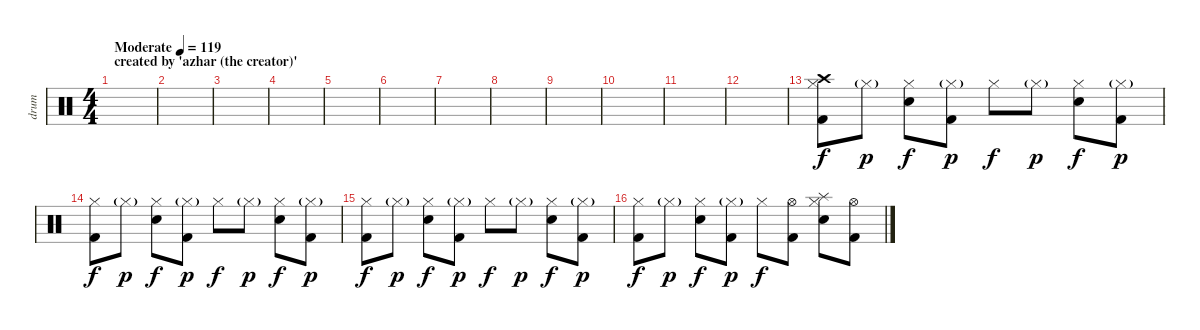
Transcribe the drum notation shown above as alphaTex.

\track ("drum" "drum") {instrument percussion}
\staff {score}
\articulation defaults
\ts (4 4)
\section ("" "created by 'azhar (the creator)'")
\tempo (119 "Moderate")
\clef neutral
\ks c
|
|
|
|
|
|
|
|
|
|
|
|
("Crash high (hit)" "Hi-Hat (closed)" "Kick (hit) 2").8 "Hi-Hat (closed)"{g}.8{dy p} ("Hi-Hat (closed)" "Electric Snare (hit)").8{dy f} ("Hi-Hat (closed)"{g} "Kick (hit) 2").8{dy p} "Hi-Hat (closed)".8{dy f} "Hi-Hat (closed)"{g}.8{dy p} ("Hi-Hat (closed)" "Electric Snare (hit)").8{dy f} ("Hi-Hat (closed)"{g} "Kick (hit) 2").8{dy p} |
("Hi-Hat (closed)" "Kick (hit) 2").8{dy f} "Hi-Hat (closed)"{g}.8{dy p} ("Hi-Hat (closed)" "Electric Snare (hit)").8{dy f} ("Hi-Hat (closed)"{g} "Kick (hit) 2").8{dy p} "Hi-Hat (closed)".8{dy f} "Hi-Hat (closed)"{g}.8{dy p} ("Hi-Hat (closed)" "Electric Snare (hit)").8{dy f} ("Hi-Hat (closed)"{g} "Kick (hit) 2").8{dy p} |
("Hi-Hat (closed)" "Kick (hit) 2").8{dy f} "Hi-Hat (closed)"{g}.8{dy p} ("Hi-Hat (closed)" "Electric Snare (hit)").8{dy f} ("Hi-Hat (closed)"{g} "Kick (hit) 2").8{dy p} "Hi-Hat (closed)".8{dy f} "Hi-Hat (closed)"{g}.8{dy p} ("Hi-Hat (closed)" "Electric Snare (hit)").8{dy f} ("Hi-Hat (closed)"{g} "Kick (hit) 2").8{dy p} |
("Hi-Hat (closed)" "Kick (hit) 2").8{dy f} "Hi-Hat (closed)"{g}.8{dy p} ("Hi-Hat (closed)" "Electric Snare (hit)").8{dy f} ("Hi-Hat (closed)"{g} "Kick (hit) 2").8{dy p} "Hi-Hat (closed)".8{dy f} ("Hi-Hat (open)" "Kick (hit) 2").8 ("Splash (hit)" "Hi-Hat (closed)" "Electric Snare (hit)").8 ("Hi-Hat (open)" "Kick (hit) 2").8
